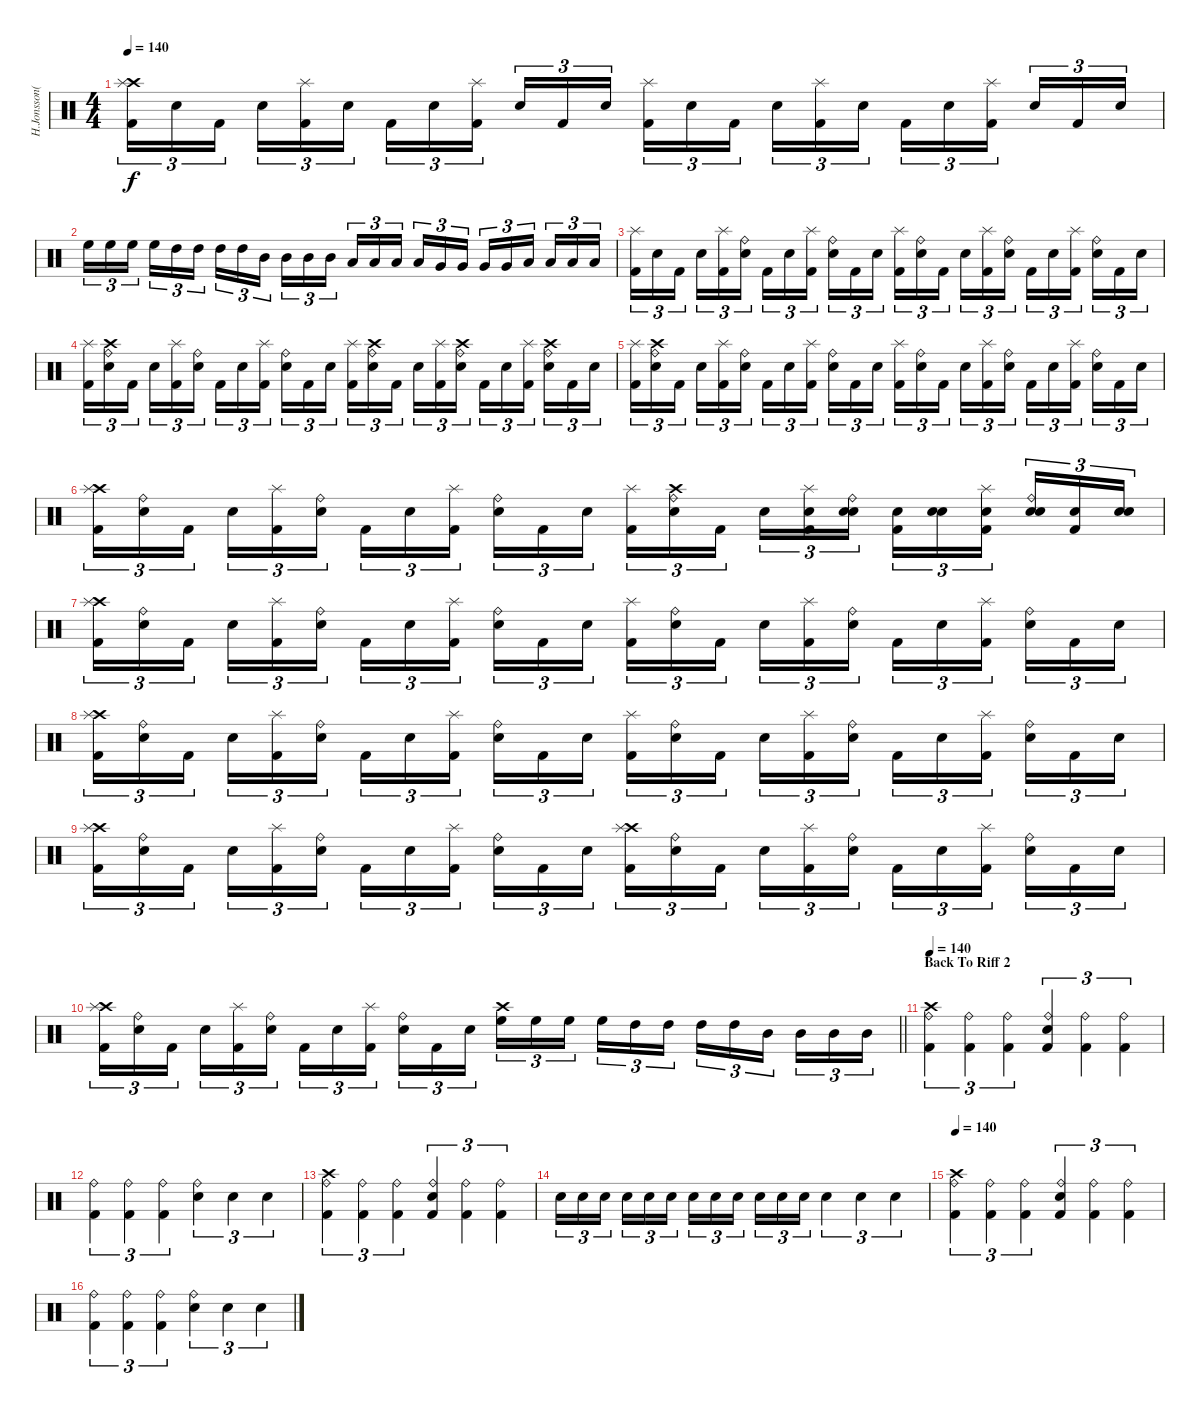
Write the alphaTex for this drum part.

\track ("H.Jonsson(Drums)" "H.Jonsson(") {instrument percussion}
\staff {score}
\articulation defaults
\ts (4 4)
\tempo 140
\clef neutral
\ks c
("Crash high (hit)" "Splash (hit)" "Kick (hit) 2").16{tu (3 2) dy f} "Electric Snare (hit)".16{tu (3 2)} "Kick (hit) 2".16{tu (3 2) beam splitsecondary} "Electric Snare (hit)".16{tu (3 2)} ("Splash (hit)" "Kick (hit) 2").16{tu (3 2)} "Electric Snare (hit)".16{tu (3 2)} "Kick (hit) 2".16{tu (3 2)} "Electric Snare (hit)".16{tu (3 2)} ("Splash (hit)" "Kick (hit) 2").16{tu (3 2) beam splitsecondary} "Electric Snare (hit)".16{tu (3 2)} "Kick (hit) 2".16{tu (3 2)} "Electric Snare (hit)".16{tu (3 2)} ("Splash (hit)" "Kick (hit) 2").16{tu (3 2)} "Electric Snare (hit)".16{tu (3 2)} "Kick (hit) 2".16{tu (3 2) beam splitsecondary} "Electric Snare (hit)".16{tu (3 2)} ("Splash (hit)" "Kick (hit) 2").16{tu (3 2)} "Electric Snare (hit)".16{tu (3 2)} "Kick (hit) 2".16{tu (3 2)} "Electric Snare (hit)".16{tu (3 2)} ("Splash (hit)" "Kick (hit) 2").16{tu (3 2) beam splitsecondary} "Electric Snare (hit)".16{tu (3 2)} "Kick (hit) 2".16{tu (3 2)} "Electric Snare (hit)".16{tu (3 2)} |
"High Floor Tom (hit)".16{tu (3 2)} "High Floor Tom (hit)".16{tu (3 2)} "High Floor Tom (hit)".16{tu (3 2) beam splitsecondary} "High Floor Tom (hit)".16{tu (3 2)} "High Tom (hit)".16{tu (3 2)} "High Tom (hit)".16{tu (3 2)} "High Tom (hit)".16{tu (3 2)} "High Tom (hit)".16{tu (3 2)} "Mid Tom (hit)".16{tu (3 2) beam splitsecondary} "Mid Tom (hit)".16{tu (3 2)} "Mid Tom (hit)".16{tu (3 2)} "Mid Tom (hit)".16{tu (3 2)} "Low Tom (hit)".16{tu (3 2)} "Low Tom (hit)".16{tu (3 2)} "Low Tom (hit)".16{tu (3 2) beam splitsecondary} "Low Tom (hit)".16{tu (3 2)} "Very Low Tom (hit)".16{tu (3 2)} "Very Low Tom (hit)".16{tu (3 2)} "Very Low Tom (hit)".16{tu (3 2)} "Very Low Tom (hit)".16{tu (3 2)} "Low Floor Tom (hit)".16{tu (3 2) beam splitsecondary} "Low Floor Tom (hit)".16{tu (3 2)} "Low Floor Tom (hit)".16{tu (3 2)} "Low Floor Tom (hit)".16{tu (3 2)} |
("Splash (hit)" "Kick (hit) 2").16{tu (3 2)} "Electric Snare (hit)".16{tu (3 2)} "Kick (hit) 2".16{tu (3 2) beam splitsecondary} "Electric Snare (hit)".16{tu (3 2)} ("Splash (hit)" "Kick (hit) 2").16{tu (3 2)} ("Ride (bell)" "Electric Snare (hit)").16{tu (3 2)} "Kick (hit) 2".16{tu (3 2)} "Electric Snare (hit)".16{tu (3 2)} ("Splash (hit)" "Kick (hit) 2").16{tu (3 2) beam splitsecondary} ("Ride (bell)" "Electric Snare (hit)").16{tu (3 2)} "Kick (hit) 2".16{tu (3 2)} "Electric Snare (hit)".16{tu (3 2)} ("Splash (hit)" "Kick (hit) 2").16{tu (3 2)} ("Ride (bell)" "Electric Snare (hit)").16{tu (3 2)} "Kick (hit) 2".16{tu (3 2) beam splitsecondary} "Electric Snare (hit)".16{tu (3 2)} ("Splash (hit)" "Kick (hit) 2").16{tu (3 2)} ("Ride (bell)" "Electric Snare (hit)").16{tu (3 2)} "Kick (hit) 2".16{tu (3 2)} "Electric Snare (hit)".16{tu (3 2)} ("Splash (hit)" "Kick (hit) 2").16{tu (3 2) beam splitsecondary} ("Ride (bell)" "Electric Snare (hit)").16{tu (3 2)} "Kick (hit) 2".16{tu (3 2)} "Electric Snare (hit)".16{tu (3 2)} |
("Splash (hit)" "Kick (hit) 2").16{tu (3 2)} ("Crash high (hit)" "Ride (bell)" "Electric Snare (hit)").16{tu (3 2)} "Kick (hit) 2".16{tu (3 2) beam splitsecondary} "Electric Snare (hit)".16{tu (3 2)} ("Splash (hit)" "Kick (hit) 2").16{tu (3 2)} ("Ride (bell)" "Electric Snare (hit)").16{tu (3 2)} "Kick (hit) 2".16{tu (3 2)} "Electric Snare (hit)".16{tu (3 2)} ("Splash (hit)" "Kick (hit) 2").16{tu (3 2) beam splitsecondary} ("Ride (bell)" "Electric Snare (hit)").16{tu (3 2)} "Kick (hit) 2".16{tu (3 2)} "Electric Snare (hit)".16{tu (3 2)} ("Splash (hit)" "Kick (hit) 2").16{tu (3 2)} ("Crash high (hit)" "Ride (bell)" "Electric Snare (hit)").16{tu (3 2)} "Kick (hit) 2".16{tu (3 2) beam splitsecondary} "Electric Snare (hit)".16{tu (3 2)} ("Splash (hit)" "Kick (hit) 2").16{tu (3 2)} ("Crash high (hit)" "Ride (bell)" "Electric Snare (hit)").16{tu (3 2)} "Kick (hit) 2".16{tu (3 2)} "Electric Snare (hit)".16{tu (3 2)} ("Splash (hit)" "Kick (hit) 2").16{tu (3 2) beam splitsecondary} ("Crash high (hit)" "Ride (bell)" "Electric Snare (hit)").16{tu (3 2)} "Kick (hit) 2".16{tu (3 2)} "Electric Snare (hit)".16{tu (3 2)} |
("Splash (hit)" "Kick (hit) 2").16{tu (3 2)} ("Crash high (hit)" "Ride (bell)" "Electric Snare (hit)").16{tu (3 2)} "Kick (hit) 2".16{tu (3 2) beam splitsecondary} "Electric Snare (hit)".16{tu (3 2)} ("Splash (hit)" "Kick (hit) 2").16{tu (3 2)} ("Ride (bell)" "Electric Snare (hit)").16{tu (3 2)} "Kick (hit) 2".16{tu (3 2)} "Electric Snare (hit)".16{tu (3 2)} ("Splash (hit)" "Kick (hit) 2").16{tu (3 2) beam splitsecondary} ("Ride (bell)" "Electric Snare (hit)").16{tu (3 2)} "Kick (hit) 2".16{tu (3 2)} "Electric Snare (hit)".16{tu (3 2)} ("Splash (hit)" "Kick (hit) 2").16{tu (3 2)} ("Ride (bell)" "Electric Snare (hit)").16{tu (3 2)} "Kick (hit) 2".16{tu (3 2) beam splitsecondary} "Electric Snare (hit)".16{tu (3 2)} ("Splash (hit)" "Kick (hit) 2").16{tu (3 2)} ("Ride (bell)" "Electric Snare (hit)").16{tu (3 2)} "Kick (hit) 2".16{tu (3 2)} "Electric Snare (hit)".16{tu (3 2)} ("Splash (hit)" "Kick (hit) 2").16{tu (3 2) beam splitsecondary} ("Ride (bell)" "Electric Snare (hit)").16{tu (3 2)} "Kick (hit) 2".16{tu (3 2)} "Electric Snare (hit)".16{tu (3 2)} |
("Crash high (hit)" "Splash (hit)" "Kick (hit) 2").16{tu (3 2)} ("Ride (bell)" "Electric Snare (hit)").16{tu (3 2)} "Kick (hit) 2".16{tu (3 2) beam splitsecondary} "Electric Snare (hit)".16{tu (3 2)} ("Splash (hit)" "Kick (hit) 2").16{tu (3 2)} ("Ride (bell)" "Electric Snare (hit)").16{tu (3 2)} "Kick (hit) 2".16{tu (3 2)} "Electric Snare (hit)".16{tu (3 2)} ("Splash (hit)" "Kick (hit) 2").16{tu (3 2) beam splitsecondary} ("Ride (bell)" "Electric Snare (hit)").16{tu (3 2)} "Kick (hit) 2".16{tu (3 2)} "Electric Snare (hit)".16{tu (3 2)} ("Splash (hit)" "Kick (hit) 2").16{tu (3 2)} ("Crash high (hit)" "Ride (bell)" "Electric Snare (hit)").16{tu (3 2)} "Kick (hit) 2".16{tu (3 2) beam splitsecondary} "Electric Snare (hit)".16{tu (3 2)} ("Snare (hit) 2" "Splash (hit)" "Kick (hit) 2").16{tu (3 2)} ("Snare (hit) 2" "Ride (bell)" "Electric Snare (hit)").16{tu (3 2)} ("Snare (hit) 2" "Kick (hit) 2").16{tu (3 2)} ("Snare (hit) 2" "Electric Snare (hit)").16{tu (3 2)} ("Snare (hit) 2" "Splash (hit)" "Kick (hit) 2").16{tu (3 2) beam splitsecondary} ("Snare (hit) 2" "Ride (bell)" "Electric Snare (hit)").16{tu (3 2)} ("Snare (hit) 2" "Kick (hit) 2").16{tu (3 2)} ("Snare (hit) 2" "Electric Snare (hit)").16{tu (3 2)} |
("Crash high (hit)" "Splash (hit)" "Kick (hit) 2").16{tu (3 2)} ("Ride (bell)" "Electric Snare (hit)").16{tu (3 2)} "Kick (hit) 2".16{tu (3 2) beam splitsecondary} "Electric Snare (hit)".16{tu (3 2)} ("Splash (hit)" "Kick (hit) 2").16{tu (3 2)} ("Ride (bell)" "Electric Snare (hit)").16{tu (3 2)} "Kick (hit) 2".16{tu (3 2)} "Electric Snare (hit)".16{tu (3 2)} ("Splash (hit)" "Kick (hit) 2").16{tu (3 2) beam splitsecondary} ("Ride (bell)" "Electric Snare (hit)").16{tu (3 2)} "Kick (hit) 2".16{tu (3 2)} "Electric Snare (hit)".16{tu (3 2)} ("Splash (hit)" "Kick (hit) 2").16{tu (3 2)} ("Ride (bell)" "Electric Snare (hit)").16{tu (3 2)} "Kick (hit) 2".16{tu (3 2) beam splitsecondary} "Electric Snare (hit)".16{tu (3 2)} ("Splash (hit)" "Kick (hit) 2").16{tu (3 2)} ("Ride (bell)" "Electric Snare (hit)").16{tu (3 2)} "Kick (hit) 2".16{tu (3 2)} "Electric Snare (hit)".16{tu (3 2)} ("Splash (hit)" "Kick (hit) 2").16{tu (3 2) beam splitsecondary} ("Ride (bell)" "Electric Snare (hit)").16{tu (3 2)} "Kick (hit) 2".16{tu (3 2)} "Electric Snare (hit)".16{tu (3 2)} |
("Crash high (hit)" "Splash (hit)" "Kick (hit) 2").16{tu (3 2)} ("Ride (bell)" "Electric Snare (hit)").16{tu (3 2)} "Kick (hit) 2".16{tu (3 2) beam splitsecondary} "Electric Snare (hit)".16{tu (3 2)} ("Splash (hit)" "Kick (hit) 2").16{tu (3 2)} ("Ride (bell)" "Electric Snare (hit)").16{tu (3 2)} "Kick (hit) 2".16{tu (3 2)} "Electric Snare (hit)".16{tu (3 2)} ("Splash (hit)" "Kick (hit) 2").16{tu (3 2) beam splitsecondary} ("Ride (bell)" "Electric Snare (hit)").16{tu (3 2)} "Kick (hit) 2".16{tu (3 2)} "Electric Snare (hit)".16{tu (3 2)} ("Splash (hit)" "Kick (hit) 2").16{tu (3 2)} ("Ride (bell)" "Electric Snare (hit)").16{tu (3 2)} "Kick (hit) 2".16{tu (3 2) beam splitsecondary} "Electric Snare (hit)".16{tu (3 2)} ("Splash (hit)" "Kick (hit) 2").16{tu (3 2)} ("Ride (bell)" "Electric Snare (hit)").16{tu (3 2)} "Kick (hit) 2".16{tu (3 2)} "Electric Snare (hit)".16{tu (3 2)} ("Splash (hit)" "Kick (hit) 2").16{tu (3 2) beam splitsecondary} ("Ride (bell)" "Electric Snare (hit)").16{tu (3 2)} "Kick (hit) 2".16{tu (3 2)} "Electric Snare (hit)".16{tu (3 2)} |
("Crash high (hit)" "Splash (hit)" "Kick (hit) 2").16{tu (3 2)} ("Ride (bell)" "Electric Snare (hit)").16{tu (3 2)} "Kick (hit) 2".16{tu (3 2) beam splitsecondary} "Electric Snare (hit)".16{tu (3 2)} ("Splash (hit)" "Kick (hit) 2").16{tu (3 2)} ("Ride (bell)" "Electric Snare (hit)").16{tu (3 2)} "Kick (hit) 2".16{tu (3 2)} "Electric Snare (hit)".16{tu (3 2)} ("Splash (hit)" "Kick (hit) 2").16{tu (3 2) beam splitsecondary} ("Ride (bell)" "Electric Snare (hit)").16{tu (3 2)} "Kick (hit) 2".16{tu (3 2)} "Electric Snare (hit)".16{tu (3 2)} ("Crash high (hit)" "Splash (hit)" "Kick (hit) 2").16{tu (3 2)} ("Ride (bell)" "Electric Snare (hit)").16{tu (3 2)} "Kick (hit) 2".16{tu (3 2) beam splitsecondary} "Electric Snare (hit)".16{tu (3 2)} ("Splash (hit)" "Kick (hit) 2").16{tu (3 2)} ("Ride (bell)" "Electric Snare (hit)").16{tu (3 2)} "Kick (hit) 2".16{tu (3 2)} "Electric Snare (hit)".16{tu (3 2)} ("Splash (hit)" "Kick (hit) 2").16{tu (3 2) beam splitsecondary} ("Ride (bell)" "Electric Snare (hit)").16{tu (3 2)} "Kick (hit) 2".16{tu (3 2)} "Electric Snare (hit)".16{tu (3 2)} |
\barLineRight lightlight
("Crash high (hit)" "Splash (hit)" "Kick (hit) 2").16{tu (3 2)} ("Ride (bell)" "Electric Snare (hit)").16{tu (3 2)} "Kick (hit) 2".16{tu (3 2) beam splitsecondary} "Electric Snare (hit)".16{tu (3 2)} ("Splash (hit)" "Kick (hit) 2").16{tu (3 2)} ("Ride (bell)" "Electric Snare (hit)").16{tu (3 2)} "Kick (hit) 2".16{tu (3 2)} "Electric Snare (hit)".16{tu (3 2)} ("Splash (hit)" "Kick (hit) 2").16{tu (3 2) beam splitsecondary} ("Ride (bell)" "Electric Snare (hit)").16{tu (3 2)} "Kick (hit) 2".16{tu (3 2)} "Electric Snare (hit)".16{tu (3 2)} ("Crash high (hit)" "High Floor Tom (hit)").16{tu (3 2)} "High Floor Tom (hit)".16{tu (3 2)} "High Floor Tom (hit)".16{tu (3 2) beam splitsecondary} "High Floor Tom (hit)".16{tu (3 2)} "High Tom (hit)".16{tu (3 2)} "High Tom (hit)".16{tu (3 2)} "High Tom (hit)".16{tu (3 2)} "High Tom (hit)".16{tu (3 2)} "Mid Tom (hit)".16{tu (3 2) beam splitsecondary} "Mid Tom (hit)".16{tu (3 2)} "Mid Tom (hit)".16{tu (3 2)} "Mid Tom (hit)".16{tu (3 2)} |
\section ("" "Back To Riff 2")
\tempo 140
("Crash high (hit)" "Kick (hit) 2" "Ride (bell)").4{tu (3 2)} ("Kick (hit) 2" "Ride (bell)").4{tu (3 2)} ("Kick (hit) 2" "Ride (bell)").4{tu (3 2)} ("Kick (hit) 2" "Snare (hit) 2" "Ride (bell)").4{tu (3 2)} ("Kick (hit) 2" "Ride (bell)").4{tu (3 2)} ("Kick (hit) 2" "Ride (bell)").4{tu (3 2)} |
("Kick (hit) 2" "Ride (bell)").4{tu (3 2)} ("Kick (hit) 2" "Ride (bell)").4{tu (3 2)} ("Kick (hit) 2" "Ride (bell)").4{tu (3 2)} ("Snare (hit) 2" "Ride (bell)").4{tu (3 2)} "Snare (hit) 2".4{tu (3 2)} "Snare (hit) 2".4{tu (3 2)} |
("Crash high (hit)" "Kick (hit) 2" "Ride (bell)").4{tu (3 2)} ("Kick (hit) 2" "Ride (bell)").4{tu (3 2)} ("Kick (hit) 2" "Ride (bell)").4{tu (3 2)} ("Kick (hit) 2" "Snare (hit) 2" "Ride (bell)").4{tu (3 2)} ("Kick (hit) 2" "Ride (bell)").4{tu (3 2)} ("Kick (hit) 2" "Ride (bell)").4{tu (3 2)} |
"Snare (hit) 2".16{tu (3 2)} "Snare (hit) 2".16{tu (3 2)} "Snare (hit) 2".16{tu (3 2) beam splitsecondary} "Snare (hit) 2".16{tu (3 2)} "Snare (hit) 2".16{tu (3 2)} "Snare (hit) 2".16{tu (3 2)} "Snare (hit) 2".16{tu (3 2)} "Snare (hit) 2".16{tu (3 2)} "Snare (hit) 2".16{tu (3 2) beam splitsecondary} "Snare (hit) 2".16{tu (3 2)} "Snare (hit) 2".16{tu (3 2)} "Snare (hit) 2".16{tu (3 2)} "Electric Snare (hit)".4{tu (3 2)} "Electric Snare (hit)".4{tu (3 2)} "Electric Snare (hit)".4{tu (3 2)} |
\tempo 140
("Crash high (hit)" "Kick (hit) 2" "Ride (bell)").4{tu (3 2)} ("Kick (hit) 2" "Ride (bell)").4{tu (3 2)} ("Kick (hit) 2" "Ride (bell)").4{tu (3 2)} ("Kick (hit) 2" "Snare (hit) 2" "Ride (bell)").4{tu (3 2)} ("Kick (hit) 2" "Ride (bell)").4{tu (3 2)} ("Kick (hit) 2" "Ride (bell)").4{tu (3 2)} |
("Kick (hit) 2" "Ride (bell)").4{tu (3 2)} ("Kick (hit) 2" "Ride (bell)").4{tu (3 2)} ("Kick (hit) 2" "Ride (bell)").4{tu (3 2)} ("Snare (hit) 2" "Ride (bell)").4{tu (3 2)} "Snare (hit) 2".4{tu (3 2)} "Snare (hit) 2".4{tu (3 2)}
